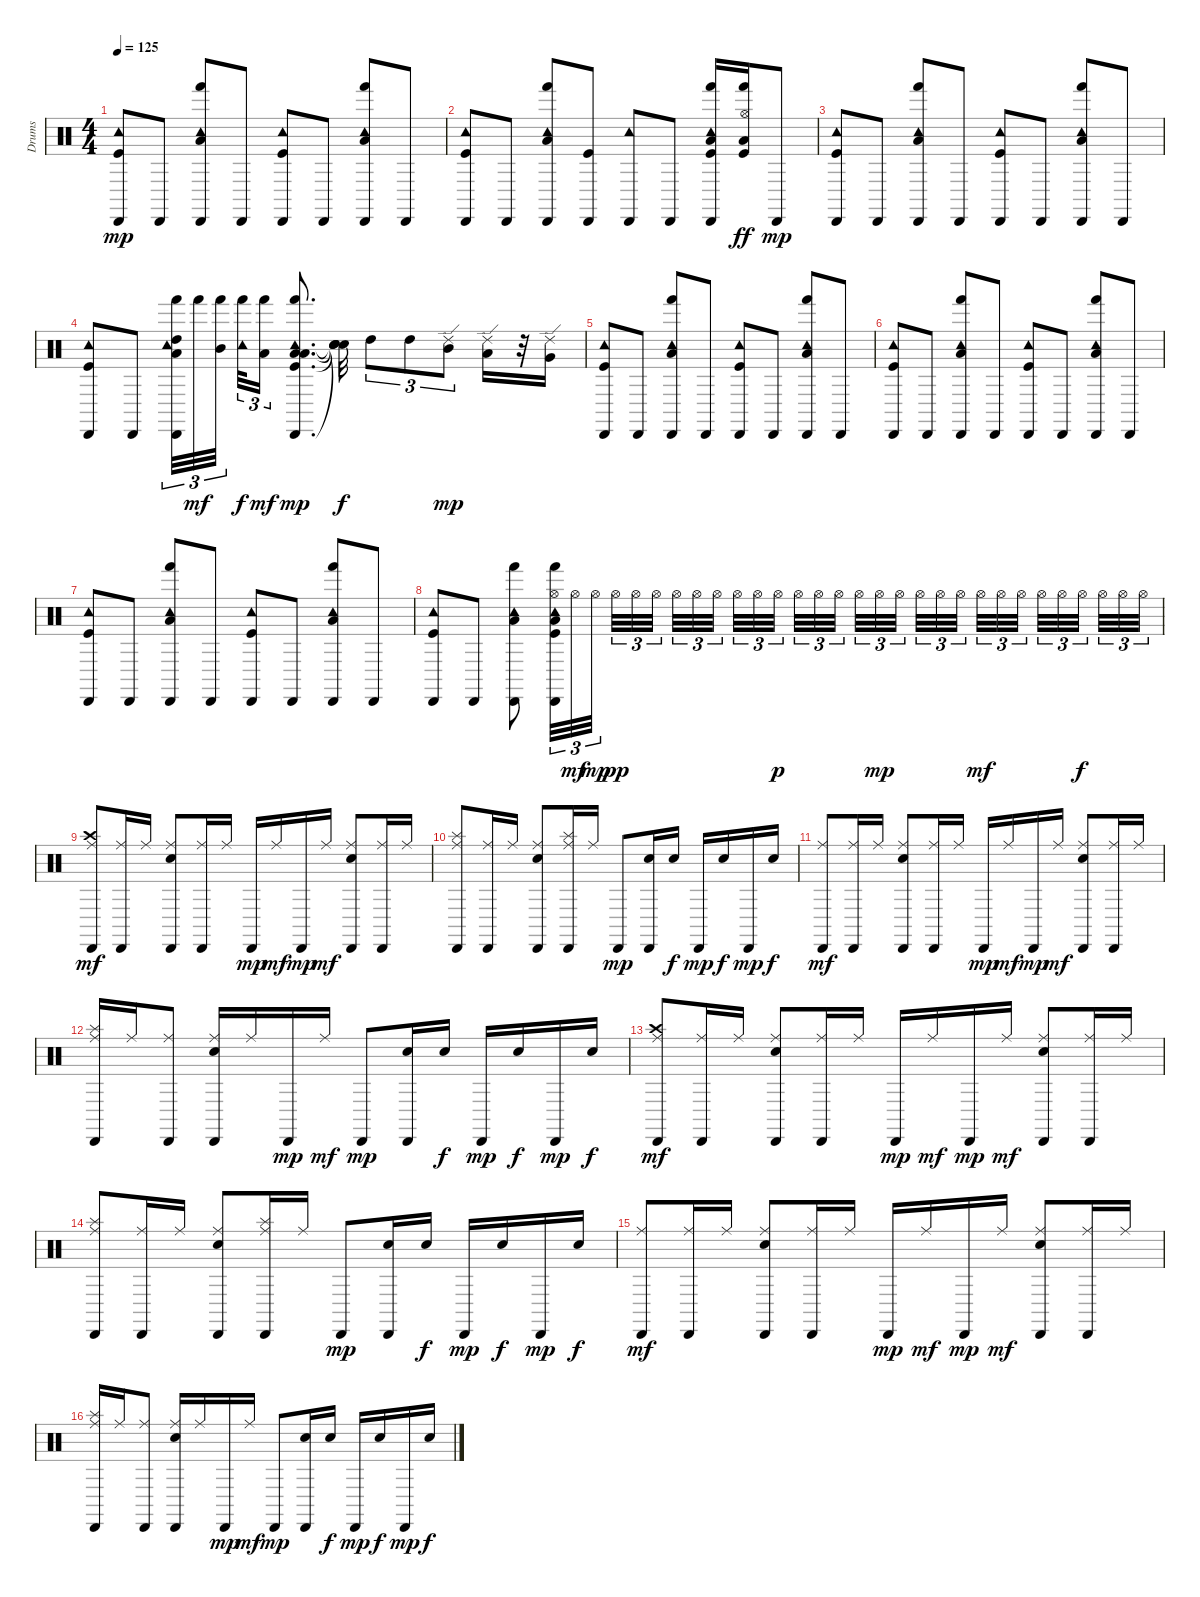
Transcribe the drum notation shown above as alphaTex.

\track ("Drums" "Drums") {instrument percussion}
\staff {score}
\articulation defaults
\ts (4 4)
\tempo 125
\clef neutral
\ks c
("Kick (hit)" "Tambourine (hit)" "Cabasa (hit)").8{dy mp} "Cabasa (hit)".8 ("Low Tom (hit)" "Hand (hit)" "Tambourine (hit)" "Cabasa (hit)").8 "Cabasa (hit)".8 ("Kick (hit)" "Tambourine (hit)" "Cabasa (hit)").8 "Cabasa (hit)".8 ("Low Tom (hit)" "Hand (hit)" "Tambourine (hit)" "Cabasa (hit)").8 "Cabasa (hit)".8 |
("Kick (hit)" "Tambourine (hit)" "Cabasa (hit)").8 "Cabasa (hit)".8 ("Low Tom (hit)" "Hand (hit)" "Tambourine (hit)" "Cabasa (hit)").8 ("Kick (hit)" "Cabasa (hit)").8 ("Tambourine (hit)" "Cabasa (hit)").8 "Cabasa (hit)".8 ("Tambourine (hit)" "Kick (hit)" "Low Tom (hit)" "Hand (hit)" "Cabasa (hit)").16 ("Hi-Hat (open)" "Kick (hit)" "Low Tom (hit)" "Hand (hit)").16{dy ff} "Cabasa (hit)".8{dy mp} |
("Kick (hit)" "Tambourine (hit)" "Cabasa (hit)").8 "Cabasa (hit)".8 ("Low Tom (hit)" "Hand (hit)" "Tambourine (hit)" "Cabasa (hit)").8 "Cabasa (hit)".8 ("Kick (hit)" "Tambourine (hit)" "Cabasa (hit)").8 "Cabasa (hit)".8 ("Low Tom (hit)" "Hand (hit)" "Tambourine (hit)" "Cabasa (hit)").8 "Cabasa (hit)".8 |
("Kick (hit)" "Tambourine (hit)" "Cabasa (hit)").8 "Cabasa (hit)".8 ("High Tom (hit)" "Low Tom (hit)" "Hand (hit)" "Tambourine (hit)" "Cabasa (hit)").32{tu (3 2)} "Hand (hit)".32{tu (3 2) dy mf} ("Mid Tom (hit)" "Hand (hit)").32{tu (3 2)} ("Tambourine (hit)" "Hand (hit)").32{tu (3 2) dy f} ("Low Tom (hit)" "Hand (hit)").16{tu (3 2) dy mf} ("Low Floor Tom (hit)" "Kick (hit)" "Tambourine (hit)" "Cabasa (hit)" "Low Tom (hit)" "Hand (hit)").8{d dy mp} ("Snare (hit)"{t} "Snare (hit)"{t} "Snare (hit)"{t} "Snare (hit)"{t}).32{dy f} "High Tom (hit)".8{tu (3 2)} "High Tom (hit)".8{tu (3 2)} ("Ride (edge) 2" "Mid Tom (hit)").8{tu (3 2) dy mp} ("Ride (edge) 2" "Low Tom (hit)").16 r.32 ("Ride (edge) 2" "Very Low Tom (hit)").16 |
("Kick (hit)" "Tambourine (hit)" "Cabasa (hit)").8 "Cabasa (hit)".8 ("Low Tom (hit)" "Hand (hit)" "Tambourine (hit)" "Cabasa (hit)").8 "Cabasa (hit)".8 ("Kick (hit)" "Tambourine (hit)" "Cabasa (hit)").8 "Cabasa (hit)".8 ("Low Tom (hit)" "Hand (hit)" "Tambourine (hit)" "Cabasa (hit)").8 "Cabasa (hit)".8 |
("Kick (hit)" "Tambourine (hit)" "Cabasa (hit)").8 "Cabasa (hit)".8 ("Low Tom (hit)" "Hand (hit)" "Tambourine (hit)" "Cabasa (hit)").8 "Cabasa (hit)".8 ("Kick (hit)" "Tambourine (hit)" "Cabasa (hit)").8 "Cabasa (hit)".8 ("Low Tom (hit)" "Hand (hit)" "Tambourine (hit)" "Cabasa (hit)").8 "Cabasa (hit)".8 |
("Kick (hit)" "Tambourine (hit)" "Cabasa (hit)").8 "Cabasa (hit)".8 ("Low Tom (hit)" "Hand (hit)" "Tambourine (hit)" "Cabasa (hit)").8 "Cabasa (hit)".8 ("Kick (hit)" "Tambourine (hit)" "Cabasa (hit)").8 "Cabasa (hit)".8 ("Low Tom (hit)" "Hand (hit)" "Tambourine (hit)" "Cabasa (hit)").8 "Cabasa (hit)".8 |
("Kick (hit)" "Tambourine (hit)" "Cabasa (hit)").8 "Cabasa (hit)".8 ("Low Tom (hit)" "Hand (hit)" "Tambourine (hit)" "Cabasa (hit)").8 ("Hi-Hat (open)" "Low Tom (hit)" "Hand (hit)" "Kick (hit)" "Tambourine (hit)" "Cabasa (hit)").32{tu (3 2)} "Hi-Hat (open)".32{tu (3 2) dy mf} "Hi-Hat (open)".32{tu (3 2) dy mp} "Hi-Hat (open)".32{tu (3 2) dy pp} "Hi-Hat (open)".32{tu (3 2)} "Hi-Hat (open)".32{tu (3 2)} "Hi-Hat (open)".32{tu (3 2)} "Hi-Hat (open)".32{tu (3 2)} "Hi-Hat (open)".32{tu (3 2)} "Hi-Hat (open)".32{tu (3 2)} "Hi-Hat (open)".32{tu (3 2)} "Hi-Hat (open)".32{tu (3 2) dy p} "Hi-Hat (open)".32{tu (3 2)} "Hi-Hat (open)".32{tu (3 2)} "Hi-Hat (open)".32{tu (3 2)} "Hi-Hat (open)".32{tu (3 2)} "Hi-Hat (open)".32{tu (3 2) dy mp} "Hi-Hat (open)".32{tu (3 2)} "Hi-Hat (open)".32{tu (3 2)} "Hi-Hat (open)".32{tu (3 2)} "Hi-Hat (open)".32{tu (3 2)} "Hi-Hat (open)".32{tu (3 2) dy mf} "Hi-Hat (open)".32{tu (3 2)} "Hi-Hat (open)".32{tu (3 2)} "Hi-Hat (open)".32{tu (3 2)} "Hi-Hat (open)".32{tu (3 2)} "Hi-Hat (open)".32{tu (3 2) dy f} "Hi-Hat (open)".32{tu (3 2)} "Hi-Hat (open)".32{tu (3 2)} "Hi-Hat (open)".32{tu (3 2)} |
("Cabasa (hit)" "Crash high (hit)" "Ride (middle)").8{dy mf} ("Cabasa (hit)" "Ride (middle)").16 "Ride (middle)".16 ("Cabasa (hit)" "Electric Snare (hit)" "Ride (middle)").8 ("Cabasa (hit)" "Ride (middle)").16 "Ride (middle)".16 "Cabasa (hit)".16{dy mp} "Ride (middle)".16{dy mf} "Cabasa (hit)".16{dy mp} "Ride (middle)".16{dy mf} ("Cabasa (hit)" "Electric Snare (hit)" "Ride (middle)").8 ("Cabasa (hit)" "Ride (middle)").16 "Ride (middle)".16 |
("Splash (hit)" "Cabasa (hit)" "Ride (middle)").8 ("Cabasa (hit)" "Ride (middle)").16 "Ride (middle)".16 ("Cabasa (hit)" "Electric Snare (hit)" "Ride (middle)").8 ("Splash (hit)" "Cabasa (hit)" "Ride (middle)").16 "Ride (middle)".16 "Cabasa (hit)".8{dy mp} ("Electric Snare (hit)" "Cabasa (hit)").16 "Electric Snare (hit)".16{dy f} "Cabasa (hit)".16{dy mp} "Electric Snare (hit)".16{dy f} "Cabasa (hit)".16{dy mp} "Electric Snare (hit)".16{dy f} |
("Cabasa (hit)" "Ride (middle)").8{dy mf} ("Cabasa (hit)" "Ride (middle)").16 "Ride (middle)".16 ("Cabasa (hit)" "Electric Snare (hit)" "Ride (middle)").8 ("Cabasa (hit)" "Ride (middle)").16 "Ride (middle)".16 "Cabasa (hit)".16{dy mp} "Ride (middle)".16{dy mf} "Cabasa (hit)".16{dy mp} "Ride (middle)".16{dy mf} ("Cabasa (hit)" "Electric Snare (hit)" "Ride (middle)").8 ("Cabasa (hit)" "Ride (middle)").16 "Ride (middle)".16 |
("Splash (hit)" "Cabasa (hit)" "Ride (middle)").16 "Ride (middle)".16 ("Cabasa (hit)" "Ride (middle)").8 ("Cabasa (hit)" "Electric Snare (hit)" "Ride (middle)").16 "Ride (middle)".16 "Cabasa (hit)".16{dy mp} "Ride (middle)".16{dy mf} "Cabasa (hit)".8{dy mp} ("Electric Snare (hit)" "Cabasa (hit)").16 "Electric Snare (hit)".16{dy f} "Cabasa (hit)".16{dy mp} "Electric Snare (hit)".16{dy f} "Cabasa (hit)".16{dy mp} "Electric Snare (hit)".16{dy f} |
("Cabasa (hit)" "Crash high (hit)" "Ride (middle)").8{dy mf} ("Cabasa (hit)" "Ride (middle)").16 "Ride (middle)".16 ("Cabasa (hit)" "Electric Snare (hit)" "Ride (middle)").8 ("Cabasa (hit)" "Ride (middle)").16 "Ride (middle)".16 "Cabasa (hit)".16{dy mp} "Ride (middle)".16{dy mf} "Cabasa (hit)".16{dy mp} "Ride (middle)".16{dy mf} ("Cabasa (hit)" "Electric Snare (hit)" "Ride (middle)").8 ("Cabasa (hit)" "Ride (middle)").16 "Ride (middle)".16 |
("Splash (hit)" "Cabasa (hit)" "Ride (middle)").8 ("Cabasa (hit)" "Ride (middle)").16 "Ride (middle)".16 ("Cabasa (hit)" "Electric Snare (hit)" "Ride (middle)").8 ("Splash (hit)" "Cabasa (hit)" "Ride (middle)").16 "Ride (middle)".16 "Cabasa (hit)".8{dy mp} ("Electric Snare (hit)" "Cabasa (hit)").16 "Electric Snare (hit)".16{dy f} "Cabasa (hit)".16{dy mp} "Electric Snare (hit)".16{dy f} "Cabasa (hit)".16{dy mp} "Electric Snare (hit)".16{dy f} |
("Cabasa (hit)" "Ride (middle)").8{dy mf} ("Cabasa (hit)" "Ride (middle)").16 "Ride (middle)".16 ("Cabasa (hit)" "Electric Snare (hit)" "Ride (middle)").8 ("Cabasa (hit)" "Ride (middle)").16 "Ride (middle)".16 "Cabasa (hit)".16{dy mp} "Ride (middle)".16{dy mf} "Cabasa (hit)".16{dy mp} "Ride (middle)".16{dy mf} ("Cabasa (hit)" "Electric Snare (hit)" "Ride (middle)").8 ("Cabasa (hit)" "Ride (middle)").16 "Ride (middle)".16 |
("Splash (hit)" "Cabasa (hit)" "Ride (middle)").16 "Ride (middle)".16 ("Cabasa (hit)" "Ride (middle)").8 ("Cabasa (hit)" "Electric Snare (hit)" "Ride (middle)").16 "Ride (middle)".16 "Cabasa (hit)".16{dy mp} "Ride (middle)".16{dy mf} "Cabasa (hit)".8{dy mp} ("Electric Snare (hit)" "Cabasa (hit)").16 "Electric Snare (hit)".16{dy f} "Cabasa (hit)".16{dy mp} "Electric Snare (hit)".16{dy f} "Cabasa (hit)".16{dy mp} "Electric Snare (hit)".16{dy f}
